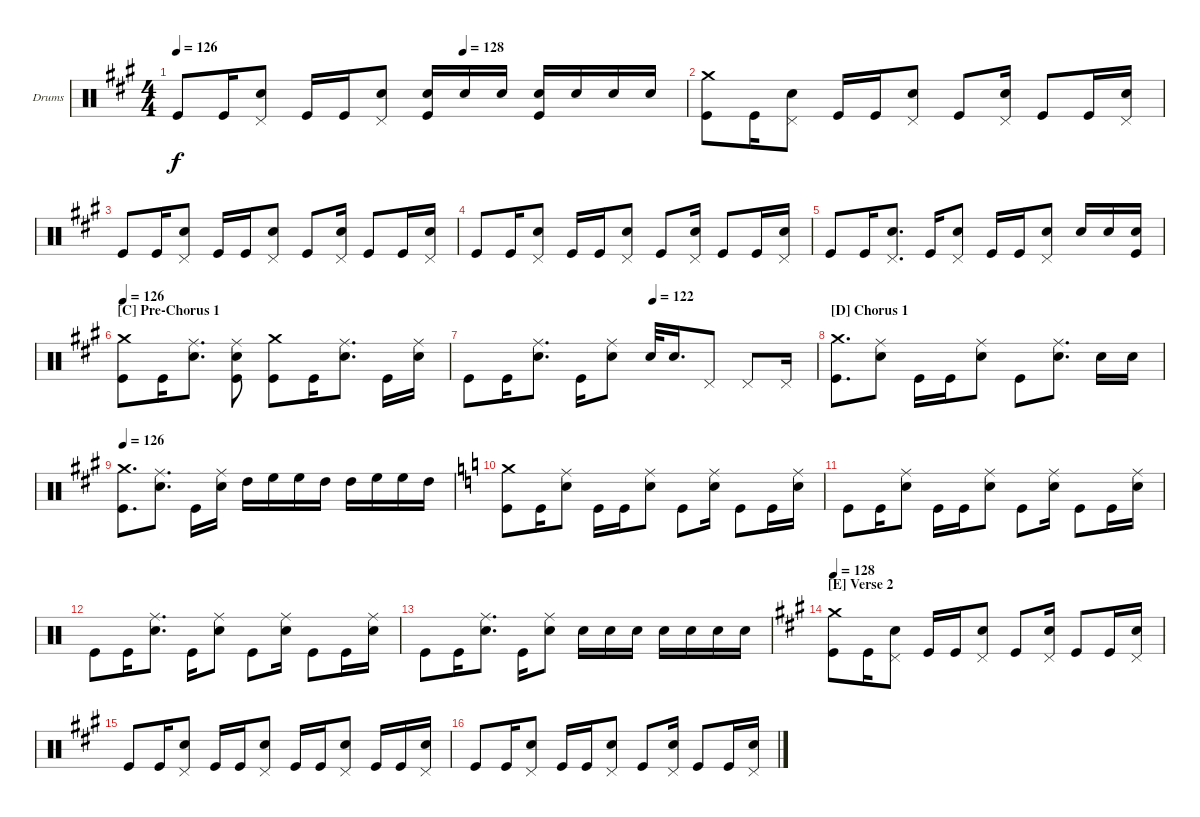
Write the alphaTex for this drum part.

\bracketExtendMode groupsimilarinstruments
\firstSystemTrackNameOrientation horizontal
\otherSystemsTrackNameOrientation horizontal
\track ("Vinny Appice" "Drums") {instrument percussion}
\staff {score}
\articulation defaults
\ts (4 4)
\tempo 126
\tempo (128 0.5625)
\clef neutral
\ks f#minor "Kick (hit)".8{dy f} "Kick (hit)".16
("Snare (hit) 2" "Pedal Hi-Hat (hit)").8 "Kick (hit)".16 "Kick (hit)".16 ("Snare (hit) 2" "Pedal Hi-Hat (hit)").8 ("Kick (hit)" "Snare (hit) 2").16 "Snare (hit) 2".16 "Snare (hit) 2".16 ("Kick (hit)" "Snare (hit) 2").16 "Snare (hit) 2".16 "Snare (hit) 2".16 "Snare (hit) 2".16 |
("Kick (hit)" "Crash medium (hit)").8 "Kick (hit)".16 ("Snare (hit) 2" "Pedal Hi-Hat (hit)").8 "Kick (hit)".16 "Kick (hit)".16 ("Snare (hit) 2" "Pedal Hi-Hat (hit)").8 "Kick (hit)".8 ("Snare (hit) 2" "Pedal Hi-Hat (hit)").16 "Kick (hit)".8 "Kick (hit)".16 ("Snare (hit) 2" "Pedal Hi-Hat (hit)").16 |
"Kick (hit)".8 "Kick (hit)".16 ("Snare (hit) 2" "Pedal Hi-Hat (hit)").8 "Kick (hit)".16 "Kick (hit)".16 ("Snare (hit) 2" "Pedal Hi-Hat (hit)").8 "Kick (hit)".8 ("Snare (hit) 2" "Pedal Hi-Hat (hit)").16 "Kick (hit)".8 "Kick (hit)".16 ("Snare (hit) 2" "Pedal Hi-Hat (hit)").16 |
"Kick (hit)".8 "Kick (hit)".16 ("Snare (hit) 2" "Pedal Hi-Hat (hit)").8 "Kick (hit)".16 "Kick (hit)".16 ("Snare (hit) 2" "Pedal Hi-Hat (hit)").8 "Kick (hit)".8 ("Snare (hit) 2" "Pedal Hi-Hat (hit)").16 "Kick (hit)".8 "Kick (hit)".16 ("Snare (hit) 2" "Pedal Hi-Hat (hit)").16 |
"Kick (hit)".8 "Kick (hit)".16 ("Snare (hit) 2" "Pedal Hi-Hat (hit)").8{d} "Kick (hit)".16 ("Snare (hit) 2" "Pedal Hi-Hat (hit)").8 "Kick (hit)".16 "Kick (hit)".16 ("Snare (hit) 2" "Pedal Hi-Hat (hit)").8 "Snare (hit) 2".16 "Snare (hit) 2".16 ("Kick (hit)" "Snare (hit) 2").16 |
\section ("C" "Pre-Chorus 1")
\tempo 126
("Crash medium (hit)" "Kick (hit)").8 "Kick (hit)".16 ("Snare (hit) 2" "Ride (middle)").8{d} ("Ride (middle)" "Snare (hit) 2" "Kick (hit)").8 ("Crash medium (hit)" "Kick (hit)").8 "Kick (hit)".16 ("Ride (middle)" "Snare (hit) 2").8{d} "Kick (hit)".16 ("Snare (hit) 2" "Ride (middle)").16 |
\tempo (122 0.53125)
"Kick (hit)".8 "Kick (hit)".16 ("Ride (middle)" "Snare (hit) 2").8{d} "Kick (hit)".16 ("Ride (middle)" "Snare (hit) 2").8 "Snare (hit) 2".32 "Snare (hit) 2".16{d} "Pedal Hi-Hat (hit)".8 "Pedal Hi-Hat (hit)".8 "Pedal Hi-Hat (hit)".16 |
\section ("D" "Chorus 1")
("Kick (hit)" "Crash medium (hit)").8{d} ("Snare (hit) 2" "Ride (middle)").8 "Kick (hit)".16 "Kick (hit)".16 ("Snare (hit) 2" "Ride (middle)").8 "Kick (hit)".8 ("Snare (hit) 2" "Ride (middle)").8{d} "Snare (hit) 2".16 "Snare (hit) 2".16 |
\tempo 126
("Kick (hit)" "Crash medium (hit)").8{d} ("Snare (hit) 2" "Ride (middle)").8{d} "Kick (hit)".16 ("Ride (middle)" "Snare (hit) 2").16 "High Tom (hit)".16 "High Floor Tom (hit)".16 "High Floor Tom (hit)".16 "High Tom (hit)".16 "High Tom (hit)".16 "High Floor Tom (hit)".16 "High Floor Tom (hit)".16 "High Tom (hit)".16 |
\ks aminor
("Crash medium (hit)" "Kick (hit)").8 "Kick (hit)".16 ("Ride (middle)" "Snare (hit) 2").8 "Kick (hit)".16 "Kick (hit)".16 ("Ride (middle)" "Snare (hit) 2").8 "Kick (hit)".8 ("Ride (middle)" "Snare (hit) 2").16 "Kick (hit)".8 "Kick (hit)".16 ("Ride (middle)" "Snare (hit) 2").16 |
"Kick (hit)".8 "Kick (hit)".16 ("Ride (middle)" "Snare (hit) 2").8 "Kick (hit)".16 "Kick (hit)".16 ("Snare (hit) 2" "Ride (middle)").8 "Kick (hit)".8 ("Snare (hit) 2" "Ride (middle)").16 "Kick (hit)".8 "Kick (hit)".16 ("Ride (middle)" "Snare (hit) 2").16 |
"Kick (hit)".8 "Kick (hit)".16 ("Snare (hit) 2" "Ride (middle)").8{d} "Kick (hit)".16 ("Snare (hit) 2" "Ride (middle)").8 "Kick (hit)".8 ("Snare (hit) 2" "Ride (middle)").16 "Kick (hit)".8 "Kick (hit)".16 ("Snare (hit) 2" "Ride (middle)").16 |
"Kick (hit)".8 "Kick (hit)".16 ("Snare (hit) 2" "Ride (middle)").8{d} "Kick (hit)".16 ("Snare (hit) 2" "Ride (middle)").8 "Snare (hit) 2".16 "Snare (hit) 2".16 "Snare (hit) 2".16 "Snare (hit) 2".16 "Snare (hit) 2".16 "Snare (hit) 2".16 "Snare (hit) 2".16 |
\section ("E" "Verse 2")
\tempo 128
\ks f#minor
("Crash medium (hit)" "Kick (hit)").8 "Kick (hit)".16 ("Snare (hit) 2" "Pedal Hi-Hat (hit)").8 "Kick (hit)".16 "Kick (hit)".16 ("Snare (hit) 2" "Pedal Hi-Hat (hit)").8 "Kick (hit)".8 ("Snare (hit) 2" "Pedal Hi-Hat (hit)").16 "Kick (hit)".8 "Kick (hit)".16 ("Snare (hit) 2" "Pedal Hi-Hat (hit)").16 |
"Kick (hit)".8 "Kick (hit)".16 ("Snare (hit) 2" "Pedal Hi-Hat (hit)").8 "Kick (hit)".16 "Kick (hit)".16 ("Snare (hit) 2" "Pedal Hi-Hat (hit)").8 "Kick (hit)".16 "Kick (hit)".16 ("Snare (hit) 2" "Pedal Hi-Hat (hit)").8 "Kick (hit)".16 "Kick (hit)".16 ("Snare (hit) 2" "Pedal Hi-Hat (hit)").16 |
"Kick (hit)".8 "Kick (hit)".16 ("Snare (hit) 2" "Pedal Hi-Hat (hit)").8 "Kick (hit)".16 "Kick (hit)".16 ("Snare (hit) 2" "Pedal Hi-Hat (hit)").8 "Kick (hit)".8 ("Snare (hit) 2" "Pedal Hi-Hat (hit)").16 "Kick (hit)".8 "Kick (hit)".16 ("Snare (hit) 2" "Pedal Hi-Hat (hit)").16
